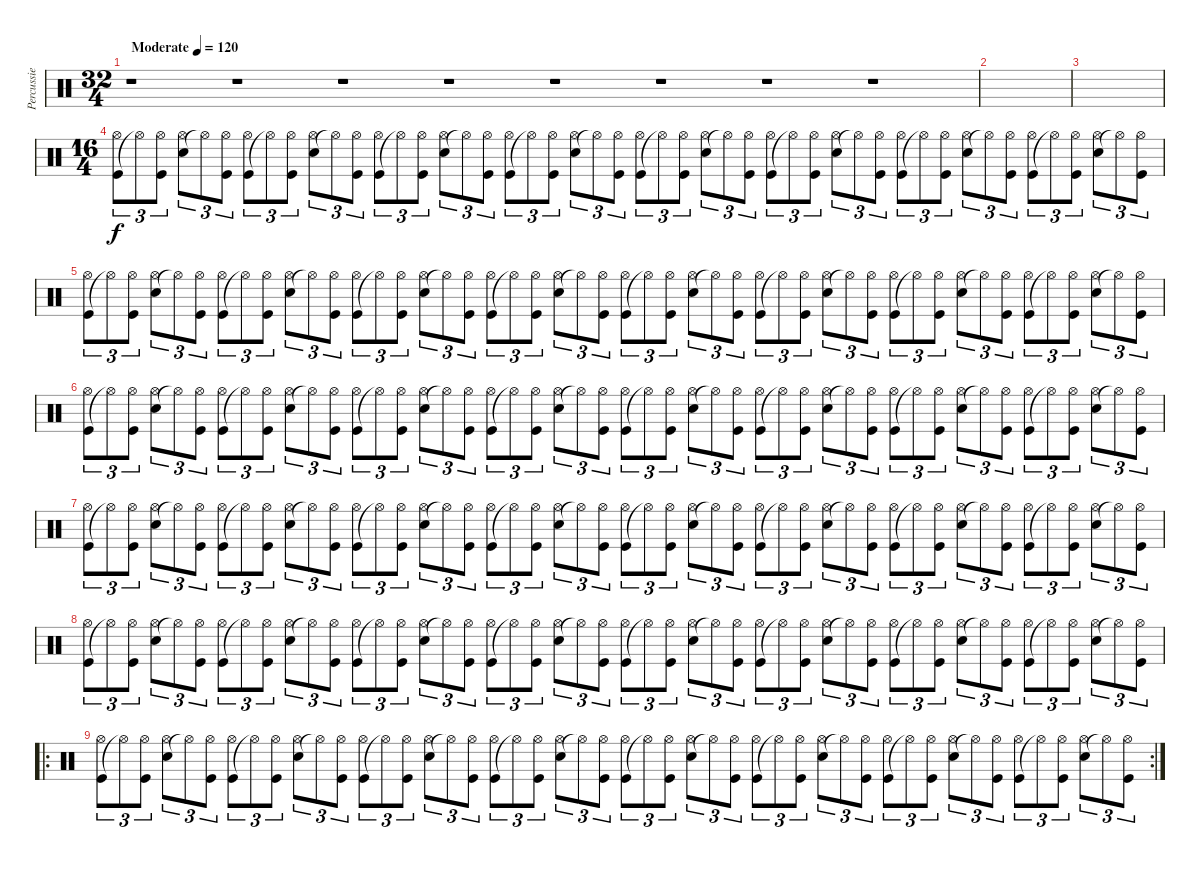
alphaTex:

\track ("Percussie" "Percussie") {instrument percussion}
\staff {score}
\articulation defaults
\ts (32 4)
\tempo (120 "Moderate")
\clef neutral
\ks c
r.1{dy f} r.1 r.1 r.1 r.1 r.1 r.1 r.1 |
|
|
\ts (16 4)
("Kick (hit)" "Hi-Hat (open)").8{tu (3 2)} "Hi-Hat (open)"{t}.8{tu (3 2)} ("Kick (hit)" "Hi-Hat (open)").8{tu (3 2)} ("Snare (hit) 2" "Hi-Hat (open)").8{tu (3 2)} "Hi-Hat (open)"{t}.8{tu (3 2)} ("Kick (hit)" "Hi-Hat (open)").8{tu (3 2)} ("Kick (hit)" "Hi-Hat (open)").8{tu (3 2)} "Hi-Hat (open)"{t}.8{tu (3 2)} ("Kick (hit)" "Hi-Hat (open)").8{tu (3 2)} ("Snare (hit) 2" "Hi-Hat (open)").8{tu (3 2)} "Hi-Hat (open)"{t}.8{tu (3 2)} ("Kick (hit)" "Hi-Hat (open)").8{tu (3 2)} ("Kick (hit)" "Hi-Hat (open)").8{tu (3 2)} "Hi-Hat (open)"{t}.8{tu (3 2)} ("Kick (hit)" "Hi-Hat (open)").8{tu (3 2)} ("Snare (hit) 2" "Hi-Hat (open)").8{tu (3 2)} "Hi-Hat (open)"{t}.8{tu (3 2)} ("Kick (hit)" "Hi-Hat (open)").8{tu (3 2)} ("Kick (hit)" "Hi-Hat (open)").8{tu (3 2)} "Hi-Hat (open)"{t}.8{tu (3 2)} ("Kick (hit)" "Hi-Hat (open)").8{tu (3 2)} ("Snare (hit) 2" "Hi-Hat (open)").8{tu (3 2)} "Hi-Hat (open)"{t}.8{tu (3 2)} ("Kick (hit)" "Hi-Hat (open)").8{tu (3 2)} ("Kick (hit)" "Hi-Hat (open)").8{tu (3 2)} "Hi-Hat (open)"{t}.8{tu (3 2)} ("Kick (hit)" "Hi-Hat (open)").8{tu (3 2)} ("Snare (hit) 2" "Hi-Hat (open)").8{tu (3 2)} "Hi-Hat (open)"{t}.8{tu (3 2)} ("Kick (hit)" "Hi-Hat (open)").8{tu (3 2)} ("Kick (hit)" "Hi-Hat (open)").8{tu (3 2)} "Hi-Hat (open)"{t}.8{tu (3 2)} ("Kick (hit)" "Hi-Hat (open)").8{tu (3 2)} ("Snare (hit) 2" "Hi-Hat (open)").8{tu (3 2)} "Hi-Hat (open)"{t}.8{tu (3 2)} ("Kick (hit)" "Hi-Hat (open)").8{tu (3 2)} ("Kick (hit)" "Hi-Hat (open)").8{tu (3 2)} "Hi-Hat (open)"{t}.8{tu (3 2)} ("Kick (hit)" "Hi-Hat (open)").8{tu (3 2)} ("Snare (hit) 2" "Hi-Hat (open)").8{tu (3 2)} "Hi-Hat (open)"{t}.8{tu (3 2)} ("Kick (hit)" "Hi-Hat (open)").8{tu (3 2)} ("Kick (hit)" "Hi-Hat (open)").8{tu (3 2)} "Hi-Hat (open)"{t}.8{tu (3 2)} ("Kick (hit)" "Hi-Hat (open)").8{tu (3 2)} ("Snare (hit) 2" "Hi-Hat (open)").8{tu (3 2)} "Hi-Hat (open)"{t}.8{tu (3 2)} ("Kick (hit)" "Hi-Hat (open)").8{tu (3 2)} |
("Kick (hit)" "Hi-Hat (open)").8{tu (3 2)} "Hi-Hat (open)"{t}.8{tu (3 2)} ("Kick (hit)" "Hi-Hat (open)").8{tu (3 2)} ("Snare (hit) 2" "Hi-Hat (open)").8{tu (3 2)} "Hi-Hat (open)"{t}.8{tu (3 2)} ("Kick (hit)" "Hi-Hat (open)").8{tu (3 2)} ("Kick (hit)" "Hi-Hat (open)").8{tu (3 2)} "Hi-Hat (open)"{t}.8{tu (3 2)} ("Kick (hit)" "Hi-Hat (open)").8{tu (3 2)} ("Snare (hit) 2" "Hi-Hat (open)").8{tu (3 2)} "Hi-Hat (open)"{t}.8{tu (3 2)} ("Kick (hit)" "Hi-Hat (open)").8{tu (3 2)} ("Kick (hit)" "Hi-Hat (open)").8{tu (3 2)} "Hi-Hat (open)"{t}.8{tu (3 2)} ("Kick (hit)" "Hi-Hat (open)").8{tu (3 2)} ("Snare (hit) 2" "Hi-Hat (open)").8{tu (3 2)} "Hi-Hat (open)"{t}.8{tu (3 2)} ("Kick (hit)" "Hi-Hat (open)").8{tu (3 2)} ("Kick (hit)" "Hi-Hat (open)").8{tu (3 2)} "Hi-Hat (open)"{t}.8{tu (3 2)} ("Kick (hit)" "Hi-Hat (open)").8{tu (3 2)} ("Snare (hit) 2" "Hi-Hat (open)").8{tu (3 2)} "Hi-Hat (open)"{t}.8{tu (3 2)} ("Kick (hit)" "Hi-Hat (open)").8{tu (3 2)} ("Kick (hit)" "Hi-Hat (open)").8{tu (3 2)} "Hi-Hat (open)"{t}.8{tu (3 2)} ("Kick (hit)" "Hi-Hat (open)").8{tu (3 2)} ("Snare (hit) 2" "Hi-Hat (open)").8{tu (3 2)} "Hi-Hat (open)"{t}.8{tu (3 2)} ("Kick (hit)" "Hi-Hat (open)").8{tu (3 2)} ("Kick (hit)" "Hi-Hat (open)").8{tu (3 2)} "Hi-Hat (open)"{t}.8{tu (3 2)} ("Kick (hit)" "Hi-Hat (open)").8{tu (3 2)} ("Snare (hit) 2" "Hi-Hat (open)").8{tu (3 2)} "Hi-Hat (open)"{t}.8{tu (3 2)} ("Kick (hit)" "Hi-Hat (open)").8{tu (3 2)} ("Kick (hit)" "Hi-Hat (open)").8{tu (3 2)} "Hi-Hat (open)"{t}.8{tu (3 2)} ("Kick (hit)" "Hi-Hat (open)").8{tu (3 2)} ("Snare (hit) 2" "Hi-Hat (open)").8{tu (3 2)} "Hi-Hat (open)"{t}.8{tu (3 2)} ("Kick (hit)" "Hi-Hat (open)").8{tu (3 2)} ("Kick (hit)" "Hi-Hat (open)").8{tu (3 2)} "Hi-Hat (open)"{t}.8{tu (3 2)} ("Kick (hit)" "Hi-Hat (open)").8{tu (3 2)} ("Snare (hit) 2" "Hi-Hat (open)").8{tu (3 2)} "Hi-Hat (open)"{t}.8{tu (3 2)} ("Kick (hit)" "Hi-Hat (open)").8{tu (3 2)} |
("Kick (hit)" "Hi-Hat (open)").8{tu (3 2)} "Hi-Hat (open)"{t}.8{tu (3 2)} ("Kick (hit)" "Hi-Hat (open)").8{tu (3 2)} ("Snare (hit) 2" "Hi-Hat (open)").8{tu (3 2)} "Hi-Hat (open)"{t}.8{tu (3 2)} ("Kick (hit)" "Hi-Hat (open)").8{tu (3 2)} ("Kick (hit)" "Hi-Hat (open)").8{tu (3 2)} "Hi-Hat (open)"{t}.8{tu (3 2)} ("Kick (hit)" "Hi-Hat (open)").8{tu (3 2)} ("Snare (hit) 2" "Hi-Hat (open)").8{tu (3 2)} "Hi-Hat (open)"{t}.8{tu (3 2)} ("Kick (hit)" "Hi-Hat (open)").8{tu (3 2)} ("Kick (hit)" "Hi-Hat (open)").8{tu (3 2)} "Hi-Hat (open)"{t}.8{tu (3 2)} ("Kick (hit)" "Hi-Hat (open)").8{tu (3 2)} ("Snare (hit) 2" "Hi-Hat (open)").8{tu (3 2)} "Hi-Hat (open)"{t}.8{tu (3 2)} ("Kick (hit)" "Hi-Hat (open)").8{tu (3 2)} ("Kick (hit)" "Hi-Hat (open)").8{tu (3 2)} "Hi-Hat (open)"{t}.8{tu (3 2)} ("Kick (hit)" "Hi-Hat (open)").8{tu (3 2)} ("Snare (hit) 2" "Hi-Hat (open)").8{tu (3 2)} "Hi-Hat (open)"{t}.8{tu (3 2)} ("Kick (hit)" "Hi-Hat (open)").8{tu (3 2)} ("Kick (hit)" "Hi-Hat (open)").8{tu (3 2)} "Hi-Hat (open)"{t}.8{tu (3 2)} ("Kick (hit)" "Hi-Hat (open)").8{tu (3 2)} ("Snare (hit) 2" "Hi-Hat (open)").8{tu (3 2)} "Hi-Hat (open)"{t}.8{tu (3 2)} ("Kick (hit)" "Hi-Hat (open)").8{tu (3 2)} ("Kick (hit)" "Hi-Hat (open)").8{tu (3 2)} "Hi-Hat (open)"{t}.8{tu (3 2)} ("Kick (hit)" "Hi-Hat (open)").8{tu (3 2)} ("Snare (hit) 2" "Hi-Hat (open)").8{tu (3 2)} "Hi-Hat (open)"{t}.8{tu (3 2)} ("Kick (hit)" "Hi-Hat (open)").8{tu (3 2)} ("Kick (hit)" "Hi-Hat (open)").8{tu (3 2)} "Hi-Hat (open)"{t}.8{tu (3 2)} ("Kick (hit)" "Hi-Hat (open)").8{tu (3 2)} ("Snare (hit) 2" "Hi-Hat (open)").8{tu (3 2)} "Hi-Hat (open)"{t}.8{tu (3 2)} ("Kick (hit)" "Hi-Hat (open)").8{tu (3 2)} ("Kick (hit)" "Hi-Hat (open)").8{tu (3 2)} "Hi-Hat (open)"{t}.8{tu (3 2)} ("Kick (hit)" "Hi-Hat (open)").8{tu (3 2)} ("Snare (hit) 2" "Hi-Hat (open)").8{tu (3 2)} "Hi-Hat (open)"{t}.8{tu (3 2)} ("Kick (hit)" "Hi-Hat (open)").8{tu (3 2)} |
("Kick (hit)" "Hi-Hat (open)").8{tu (3 2)} "Hi-Hat (open)"{t}.8{tu (3 2)} ("Kick (hit)" "Hi-Hat (open)").8{tu (3 2)} ("Snare (hit) 2" "Hi-Hat (open)").8{tu (3 2)} "Hi-Hat (open)"{t}.8{tu (3 2)} ("Kick (hit)" "Hi-Hat (open)").8{tu (3 2)} ("Kick (hit)" "Hi-Hat (open)").8{tu (3 2)} "Hi-Hat (open)"{t}.8{tu (3 2)} ("Kick (hit)" "Hi-Hat (open)").8{tu (3 2)} ("Snare (hit) 2" "Hi-Hat (open)").8{tu (3 2)} "Hi-Hat (open)"{t}.8{tu (3 2)} ("Kick (hit)" "Hi-Hat (open)").8{tu (3 2)} ("Kick (hit)" "Hi-Hat (open)").8{tu (3 2)} "Hi-Hat (open)"{t}.8{tu (3 2)} ("Kick (hit)" "Hi-Hat (open)").8{tu (3 2)} ("Snare (hit) 2" "Hi-Hat (open)").8{tu (3 2)} "Hi-Hat (open)"{t}.8{tu (3 2)} ("Kick (hit)" "Hi-Hat (open)").8{tu (3 2)} ("Kick (hit)" "Hi-Hat (open)").8{tu (3 2)} "Hi-Hat (open)"{t}.8{tu (3 2)} ("Kick (hit)" "Hi-Hat (open)").8{tu (3 2)} ("Snare (hit) 2" "Hi-Hat (open)").8{tu (3 2)} "Hi-Hat (open)"{t}.8{tu (3 2)} ("Kick (hit)" "Hi-Hat (open)").8{tu (3 2)} ("Kick (hit)" "Hi-Hat (open)").8{tu (3 2)} "Hi-Hat (open)"{t}.8{tu (3 2)} ("Kick (hit)" "Hi-Hat (open)").8{tu (3 2)} ("Snare (hit) 2" "Hi-Hat (open)").8{tu (3 2)} "Hi-Hat (open)"{t}.8{tu (3 2)} ("Kick (hit)" "Hi-Hat (open)").8{tu (3 2)} ("Kick (hit)" "Hi-Hat (open)").8{tu (3 2)} "Hi-Hat (open)"{t}.8{tu (3 2)} ("Kick (hit)" "Hi-Hat (open)").8{tu (3 2)} ("Snare (hit) 2" "Hi-Hat (open)").8{tu (3 2)} "Hi-Hat (open)"{t}.8{tu (3 2)} ("Kick (hit)" "Hi-Hat (open)").8{tu (3 2)} ("Kick (hit)" "Hi-Hat (open)").8{tu (3 2)} "Hi-Hat (open)"{t}.8{tu (3 2)} ("Kick (hit)" "Hi-Hat (open)").8{tu (3 2)} ("Snare (hit) 2" "Hi-Hat (open)").8{tu (3 2)} "Hi-Hat (open)"{t}.8{tu (3 2)} ("Kick (hit)" "Hi-Hat (open)").8{tu (3 2)} ("Kick (hit)" "Hi-Hat (open)").8{tu (3 2)} "Hi-Hat (open)"{t}.8{tu (3 2)} ("Kick (hit)" "Hi-Hat (open)").8{tu (3 2)} ("Snare (hit) 2" "Hi-Hat (open)").8{tu (3 2)} "Hi-Hat (open)"{t}.8{tu (3 2)} ("Kick (hit)" "Hi-Hat (open)").8{tu (3 2)} |
("Kick (hit)" "Hi-Hat (open)").8{tu (3 2)} "Hi-Hat (open)"{t}.8{tu (3 2)} ("Kick (hit)" "Hi-Hat (open)").8{tu (3 2)} ("Snare (hit) 2" "Hi-Hat (open)").8{tu (3 2)} "Hi-Hat (open)"{t}.8{tu (3 2)} ("Kick (hit)" "Hi-Hat (open)").8{tu (3 2)} ("Kick (hit)" "Hi-Hat (open)").8{tu (3 2)} "Hi-Hat (open)"{t}.8{tu (3 2)} ("Kick (hit)" "Hi-Hat (open)").8{tu (3 2)} ("Snare (hit) 2" "Hi-Hat (open)").8{tu (3 2)} "Hi-Hat (open)"{t}.8{tu (3 2)} ("Kick (hit)" "Hi-Hat (open)").8{tu (3 2)} ("Kick (hit)" "Hi-Hat (open)").8{tu (3 2)} "Hi-Hat (open)"{t}.8{tu (3 2)} ("Kick (hit)" "Hi-Hat (open)").8{tu (3 2)} ("Snare (hit) 2" "Hi-Hat (open)").8{tu (3 2)} "Hi-Hat (open)"{t}.8{tu (3 2)} ("Kick (hit)" "Hi-Hat (open)").8{tu (3 2)} ("Kick (hit)" "Hi-Hat (open)").8{tu (3 2)} "Hi-Hat (open)"{t}.8{tu (3 2)} ("Kick (hit)" "Hi-Hat (open)").8{tu (3 2)} ("Snare (hit) 2" "Hi-Hat (open)").8{tu (3 2)} "Hi-Hat (open)"{t}.8{tu (3 2)} ("Kick (hit)" "Hi-Hat (open)").8{tu (3 2)} ("Kick (hit)" "Hi-Hat (open)").8{tu (3 2)} "Hi-Hat (open)"{t}.8{tu (3 2)} ("Kick (hit)" "Hi-Hat (open)").8{tu (3 2)} ("Snare (hit) 2" "Hi-Hat (open)").8{tu (3 2)} "Hi-Hat (open)"{t}.8{tu (3 2)} ("Kick (hit)" "Hi-Hat (open)").8{tu (3 2)} ("Kick (hit)" "Hi-Hat (open)").8{tu (3 2)} "Hi-Hat (open)"{t}.8{tu (3 2)} ("Kick (hit)" "Hi-Hat (open)").8{tu (3 2)} ("Snare (hit) 2" "Hi-Hat (open)").8{tu (3 2)} "Hi-Hat (open)"{t}.8{tu (3 2)} ("Kick (hit)" "Hi-Hat (open)").8{tu (3 2)} ("Kick (hit)" "Hi-Hat (open)").8{tu (3 2)} "Hi-Hat (open)"{t}.8{tu (3 2)} ("Kick (hit)" "Hi-Hat (open)").8{tu (3 2)} ("Snare (hit) 2" "Hi-Hat (open)").8{tu (3 2)} "Hi-Hat (open)"{t}.8{tu (3 2)} ("Kick (hit)" "Hi-Hat (open)").8{tu (3 2)} ("Kick (hit)" "Hi-Hat (open)").8{tu (3 2)} "Hi-Hat (open)"{t}.8{tu (3 2)} ("Kick (hit)" "Hi-Hat (open)").8{tu (3 2)} ("Snare (hit) 2" "Hi-Hat (open)").8{tu (3 2)} "Hi-Hat (open)"{t}.8{tu (3 2)} ("Kick (hit)" "Hi-Hat (open)").8{tu (3 2)} |
\ro
\rc 2
("Kick (hit)" "Hi-Hat (open)").8{tu (3 2)} "Hi-Hat (open)"{t}.8{tu (3 2)} ("Kick (hit)" "Hi-Hat (open)").8{tu (3 2)} ("Snare (hit) 2" "Hi-Hat (open)").8{tu (3 2)} "Hi-Hat (open)"{t}.8{tu (3 2)} ("Kick (hit)" "Hi-Hat (open)").8{tu (3 2)} ("Kick (hit)" "Hi-Hat (open)").8{tu (3 2)} "Hi-Hat (open)"{t}.8{tu (3 2)} ("Kick (hit)" "Hi-Hat (open)").8{tu (3 2)} ("Snare (hit) 2" "Hi-Hat (open)").8{tu (3 2)} "Hi-Hat (open)"{t}.8{tu (3 2)} ("Kick (hit)" "Hi-Hat (open)").8{tu (3 2)} ("Kick (hit)" "Hi-Hat (open)").8{tu (3 2)} "Hi-Hat (open)"{t}.8{tu (3 2)} ("Kick (hit)" "Hi-Hat (open)").8{tu (3 2)} ("Snare (hit) 2" "Hi-Hat (open)").8{tu (3 2)} "Hi-Hat (open)"{t}.8{tu (3 2)} ("Kick (hit)" "Hi-Hat (open)").8{tu (3 2)} ("Kick (hit)" "Hi-Hat (open)").8{tu (3 2)} "Hi-Hat (open)"{t}.8{tu (3 2)} ("Kick (hit)" "Hi-Hat (open)").8{tu (3 2)} ("Snare (hit) 2" "Hi-Hat (open)").8{tu (3 2)} "Hi-Hat (open)"{t}.8{tu (3 2)} ("Kick (hit)" "Hi-Hat (open)").8{tu (3 2)} ("Kick (hit)" "Hi-Hat (open)").8{tu (3 2)} "Hi-Hat (open)"{t}.8{tu (3 2)} ("Kick (hit)" "Hi-Hat (open)").8{tu (3 2)} ("Snare (hit) 2" "Hi-Hat (open)").8{tu (3 2)} "Hi-Hat (open)"{t}.8{tu (3 2)} ("Kick (hit)" "Hi-Hat (open)").8{tu (3 2)} ("Kick (hit)" "Hi-Hat (open)").8{tu (3 2)} "Hi-Hat (open)"{t}.8{tu (3 2)} ("Kick (hit)" "Hi-Hat (open)").8{tu (3 2)} ("Snare (hit) 2" "Hi-Hat (open)").8{tu (3 2)} "Hi-Hat (open)"{t}.8{tu (3 2)} ("Kick (hit)" "Hi-Hat (open)").8{tu (3 2)} ("Kick (hit)" "Hi-Hat (open)").8{tu (3 2)} "Hi-Hat (open)"{t}.8{tu (3 2)} ("Kick (hit)" "Hi-Hat (open)").8{tu (3 2)} ("Snare (hit) 2" "Hi-Hat (open)").8{tu (3 2)} "Hi-Hat (open)"{t}.8{tu (3 2)} ("Kick (hit)" "Hi-Hat (open)").8{tu (3 2)} ("Kick (hit)" "Hi-Hat (open)").8{tu (3 2)} "Hi-Hat (open)"{t}.8{tu (3 2)} ("Kick (hit)" "Hi-Hat (open)").8{tu (3 2)} ("Snare (hit) 2" "Hi-Hat (open)").8{tu (3 2)} "Hi-Hat (open)"{t}.8{tu (3 2)} ("Kick (hit)" "Hi-Hat (open)").8{tu (3 2)}
